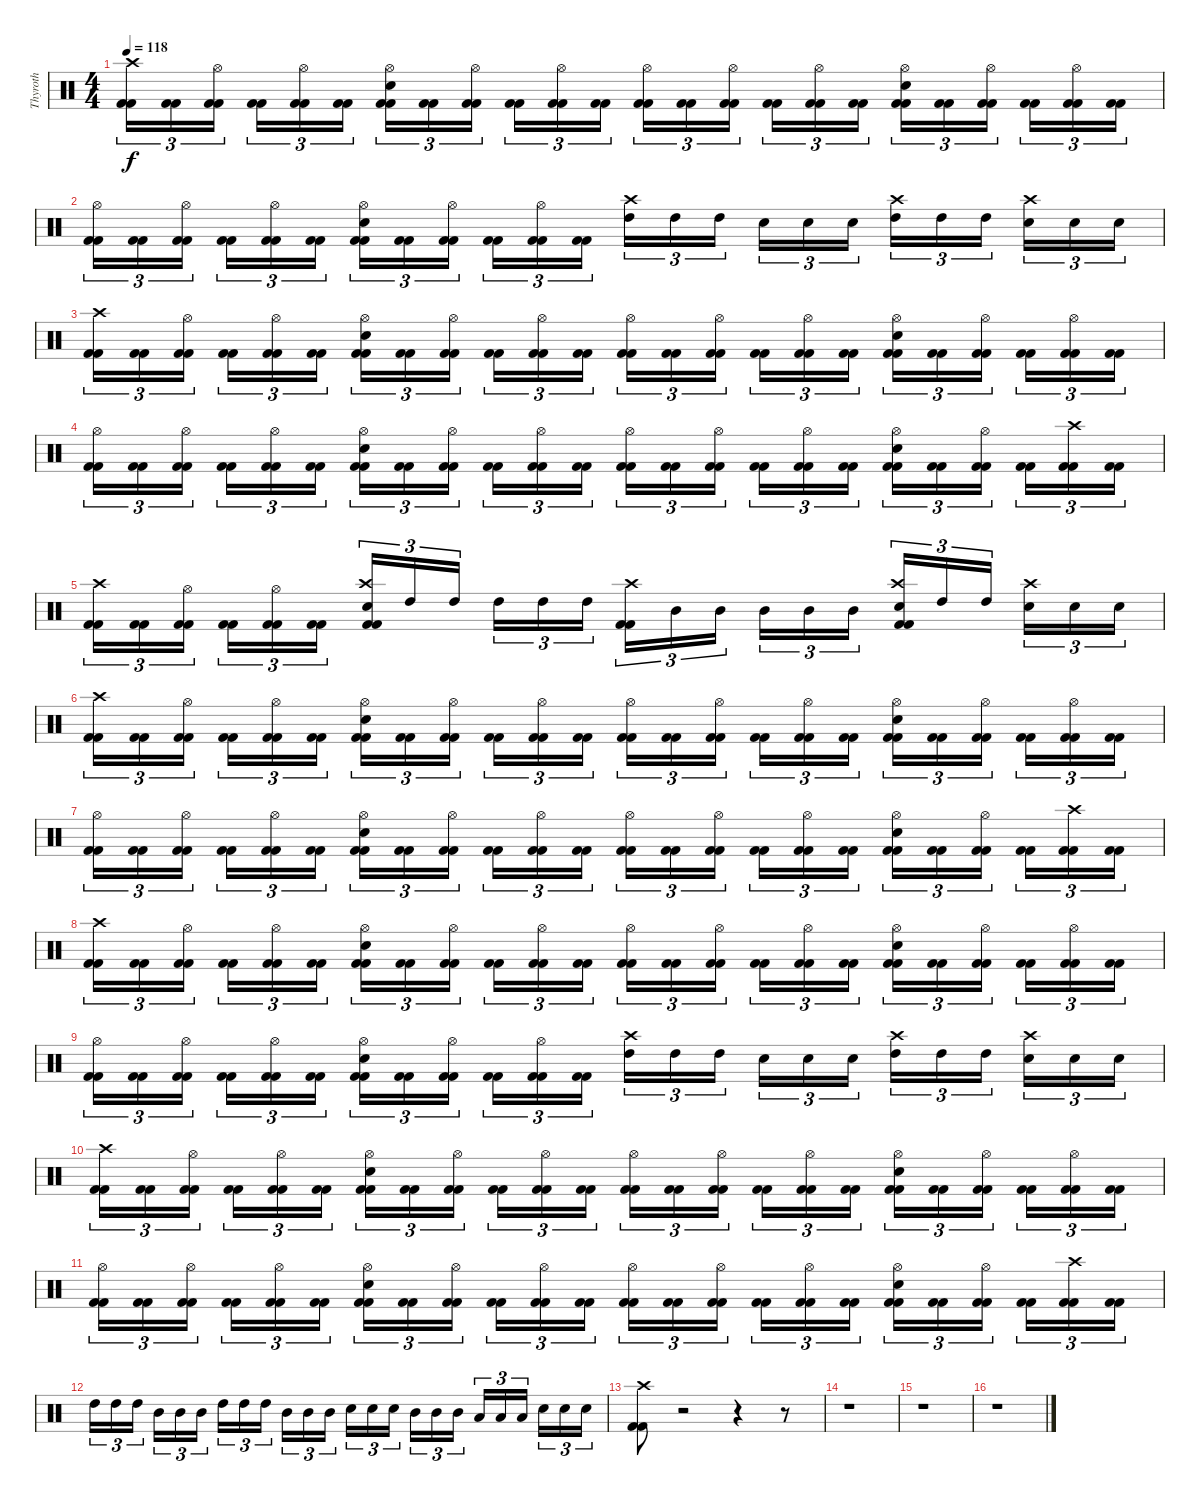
\track ("Thyroth" "Thyroth") {instrument percussion}
\staff {score}
\articulation defaults
\ts (4 4)
\tempo 118
\clef neutral
\ks c
("Kick (hit) 2" "Kick (hit) 2" "Crash high (hit)").16{tu (3 2) dy f} ("Kick (hit) 2" "Kick (hit) 2").16{tu (3 2)} ("Kick (hit) 2" "Kick (hit) 2" "Hi-Hat (open)").16{tu (3 2)} ("Kick (hit) 2" "Kick (hit) 2").16{tu (3 2)} ("Kick (hit) 2" "Kick (hit) 2" "Hi-Hat (open)").16{tu (3 2)} ("Kick (hit) 2" "Kick (hit) 2").16{tu (3 2)} ("Kick (hit) 2" "Kick (hit) 2" "Snare (hit) 2" "Hi-Hat (open)").16{tu (3 2)} ("Kick (hit) 2" "Kick (hit) 2").16{tu (3 2)} ("Kick (hit) 2" "Kick (hit) 2" "Hi-Hat (open)").16{tu (3 2)} ("Kick (hit) 2" "Kick (hit) 2").16{tu (3 2)} ("Kick (hit) 2" "Kick (hit) 2" "Hi-Hat (open)").16{tu (3 2)} ("Kick (hit) 2" "Kick (hit) 2").16{tu (3 2)} ("Kick (hit) 2" "Kick (hit) 2" "Hi-Hat (open)").16{tu (3 2)} ("Kick (hit) 2" "Kick (hit) 2").16{tu (3 2)} ("Kick (hit) 2" "Kick (hit) 2" "Hi-Hat (open)").16{tu (3 2)} ("Kick (hit) 2" "Kick (hit) 2").16{tu (3 2)} ("Kick (hit) 2" "Kick (hit) 2" "Hi-Hat (open)").16{tu (3 2)} ("Kick (hit) 2" "Kick (hit) 2").16{tu (3 2)} ("Kick (hit) 2" "Kick (hit) 2" "Snare (hit) 2" "Hi-Hat (open)").16{tu (3 2)} ("Kick (hit) 2" "Kick (hit) 2").16{tu (3 2)} ("Kick (hit) 2" "Kick (hit) 2" "Hi-Hat (open)").16{tu (3 2)} ("Kick (hit) 2" "Kick (hit) 2").16{tu (3 2)} ("Kick (hit) 2" "Kick (hit) 2" "Hi-Hat (open)").16{tu (3 2)} ("Kick (hit) 2" "Kick (hit) 2").16{tu (3 2)} |
("Kick (hit) 2" "Kick (hit) 2" "Hi-Hat (open)").16{tu (3 2)} ("Kick (hit) 2" "Kick (hit) 2").16{tu (3 2)} ("Kick (hit) 2" "Kick (hit) 2" "Hi-Hat (open)").16{tu (3 2)} ("Kick (hit) 2" "Kick (hit) 2").16{tu (3 2)} ("Kick (hit) 2" "Kick (hit) 2" "Hi-Hat (open)").16{tu (3 2)} ("Kick (hit) 2" "Kick (hit) 2").16{tu (3 2)} ("Kick (hit) 2" "Kick (hit) 2" "Snare (hit) 2" "Hi-Hat (open)").16{tu (3 2)} ("Kick (hit) 2" "Kick (hit) 2").16{tu (3 2)} ("Kick (hit) 2" "Kick (hit) 2" "Hi-Hat (open)").16{tu (3 2)} ("Kick (hit) 2" "Kick (hit) 2").16{tu (3 2)} ("Kick (hit) 2" "Kick (hit) 2" "Hi-Hat (open)").16{tu (3 2)} ("Kick (hit) 2" "Kick (hit) 2").16{tu (3 2)} ("High Tom (hit)" "Crash high (hit)").16{tu (3 2)} "High Tom (hit)".16{tu (3 2)} "High Tom (hit)".16{tu (3 2)} "Snare (hit) 2".16{tu (3 2)} "Snare (hit) 2".16{tu (3 2)} "Snare (hit) 2".16{tu (3 2)} ("High Tom (hit)" "Crash high (hit)").16{tu (3 2)} "High Tom (hit)".16{tu (3 2)} "High Tom (hit)".16{tu (3 2)} ("Snare (hit) 2" "Crash high (hit)").16{tu (3 2)} "Snare (hit) 2".16{tu (3 2)} "Snare (hit) 2".16{tu (3 2)} |
("Kick (hit) 2" "Kick (hit) 2" "Crash high (hit)").16{tu (3 2)} ("Kick (hit) 2" "Kick (hit) 2").16{tu (3 2)} ("Kick (hit) 2" "Kick (hit) 2" "Hi-Hat (open)").16{tu (3 2)} ("Kick (hit) 2" "Kick (hit) 2").16{tu (3 2)} ("Kick (hit) 2" "Kick (hit) 2" "Hi-Hat (open)").16{tu (3 2)} ("Kick (hit) 2" "Kick (hit) 2").16{tu (3 2)} ("Kick (hit) 2" "Kick (hit) 2" "Snare (hit) 2" "Hi-Hat (open)").16{tu (3 2)} ("Kick (hit) 2" "Kick (hit) 2").16{tu (3 2)} ("Kick (hit) 2" "Kick (hit) 2" "Hi-Hat (open)").16{tu (3 2)} ("Kick (hit) 2" "Kick (hit) 2").16{tu (3 2)} ("Kick (hit) 2" "Kick (hit) 2" "Hi-Hat (open)").16{tu (3 2)} ("Kick (hit) 2" "Kick (hit) 2").16{tu (3 2)} ("Kick (hit) 2" "Kick (hit) 2" "Hi-Hat (open)").16{tu (3 2)} ("Kick (hit) 2" "Kick (hit) 2").16{tu (3 2)} ("Kick (hit) 2" "Kick (hit) 2" "Hi-Hat (open)").16{tu (3 2)} ("Kick (hit) 2" "Kick (hit) 2").16{tu (3 2)} ("Kick (hit) 2" "Kick (hit) 2" "Hi-Hat (open)").16{tu (3 2)} ("Kick (hit) 2" "Kick (hit) 2").16{tu (3 2)} ("Kick (hit) 2" "Kick (hit) 2" "Snare (hit) 2" "Hi-Hat (open)").16{tu (3 2)} ("Kick (hit) 2" "Kick (hit) 2").16{tu (3 2)} ("Kick (hit) 2" "Kick (hit) 2" "Hi-Hat (open)").16{tu (3 2)} ("Kick (hit) 2" "Kick (hit) 2").16{tu (3 2)} ("Kick (hit) 2" "Kick (hit) 2" "Hi-Hat (open)").16{tu (3 2)} ("Kick (hit) 2" "Kick (hit) 2").16{tu (3 2)} |
("Kick (hit) 2" "Kick (hit) 2" "Hi-Hat (open)").16{tu (3 2)} ("Kick (hit) 2" "Kick (hit) 2").16{tu (3 2)} ("Kick (hit) 2" "Kick (hit) 2" "Hi-Hat (open)").16{tu (3 2)} ("Kick (hit) 2" "Kick (hit) 2").16{tu (3 2)} ("Kick (hit) 2" "Kick (hit) 2" "Hi-Hat (open)").16{tu (3 2)} ("Kick (hit) 2" "Kick (hit) 2").16{tu (3 2)} ("Kick (hit) 2" "Kick (hit) 2" "Snare (hit) 2" "Hi-Hat (open)").16{tu (3 2)} ("Kick (hit) 2" "Kick (hit) 2").16{tu (3 2)} ("Kick (hit) 2" "Kick (hit) 2" "Hi-Hat (open)").16{tu (3 2)} ("Kick (hit) 2" "Kick (hit) 2").16{tu (3 2)} ("Kick (hit) 2" "Kick (hit) 2" "Hi-Hat (open)").16{tu (3 2)} ("Kick (hit) 2" "Kick (hit) 2").16{tu (3 2)} ("Kick (hit) 2" "Kick (hit) 2" "Hi-Hat (open)").16{tu (3 2)} ("Kick (hit) 2" "Kick (hit) 2").16{tu (3 2)} ("Kick (hit) 2" "Kick (hit) 2" "Hi-Hat (open)").16{tu (3 2)} ("Kick (hit) 2" "Kick (hit) 2").16{tu (3 2)} ("Kick (hit) 2" "Kick (hit) 2" "Hi-Hat (open)").16{tu (3 2)} ("Kick (hit) 2" "Kick (hit) 2").16{tu (3 2)} ("Kick (hit) 2" "Kick (hit) 2" "Snare (hit) 2" "Hi-Hat (open)").16{tu (3 2)} ("Kick (hit) 2" "Kick (hit) 2").16{tu (3 2)} ("Kick (hit) 2" "Kick (hit) 2" "Hi-Hat (open)").16{tu (3 2)} ("Kick (hit) 2" "Kick (hit) 2").16{tu (3 2)} ("Kick (hit) 2" "Kick (hit) 2" "Crash high (hit)").16{tu (3 2)} ("Kick (hit) 2" "Kick (hit) 2").16{tu (3 2)} |
("Kick (hit) 2" "Kick (hit) 2" "Crash high (hit)").16{tu (3 2)} ("Kick (hit) 2" "Kick (hit) 2").16{tu (3 2)} ("Kick (hit) 2" "Kick (hit) 2" "Hi-Hat (open)").16{tu (3 2)} ("Kick (hit) 2" "Kick (hit) 2").16{tu (3 2)} ("Kick (hit) 2" "Kick (hit) 2" "Hi-Hat (open)").16{tu (3 2)} ("Kick (hit) 2" "Kick (hit) 2").16{tu (3 2)} ("Kick (hit) 2" "Kick (hit) 2" "Snare (hit) 2" "Crash high (hit)").16{tu (3 2)} "High Tom (hit)".16{tu (3 2)} "High Tom (hit)".16{tu (3 2)} "High Tom (hit)".16{tu (3 2)} "High Tom (hit)".16{tu (3 2)} "High Tom (hit)".16{tu (3 2)} ("Kick (hit) 2" "Kick (hit) 2" "Crash high (hit)").16{tu (3 2)} "Mid Tom (hit)".16{tu (3 2)} "Mid Tom (hit)".16{tu (3 2)} "Mid Tom (hit)".16{tu (3 2)} "Mid Tom (hit)".16{tu (3 2)} "Mid Tom (hit)".16{tu (3 2)} ("Kick (hit) 2" "Kick (hit) 2" "Snare (hit) 2" "Crash high (hit)").16{tu (3 2)} "High Tom (hit)".16{tu (3 2)} "High Tom (hit)".16{tu (3 2)} ("Snare (hit) 2" "Crash high (hit)").16{tu (3 2)} "Snare (hit) 2".16{tu (3 2)} "Snare (hit) 2".16{tu (3 2)} |
("Kick (hit) 2" "Kick (hit) 2" "Crash high (hit)").16{tu (3 2)} ("Kick (hit) 2" "Kick (hit) 2").16{tu (3 2)} ("Kick (hit) 2" "Kick (hit) 2" "Hi-Hat (open)").16{tu (3 2)} ("Kick (hit) 2" "Kick (hit) 2").16{tu (3 2)} ("Kick (hit) 2" "Kick (hit) 2" "Hi-Hat (open)").16{tu (3 2)} ("Kick (hit) 2" "Kick (hit) 2").16{tu (3 2)} ("Kick (hit) 2" "Kick (hit) 2" "Snare (hit) 2" "Hi-Hat (open)").16{tu (3 2)} ("Kick (hit) 2" "Kick (hit) 2").16{tu (3 2)} ("Kick (hit) 2" "Kick (hit) 2" "Hi-Hat (open)").16{tu (3 2)} ("Kick (hit) 2" "Kick (hit) 2").16{tu (3 2)} ("Kick (hit) 2" "Kick (hit) 2" "Hi-Hat (open)").16{tu (3 2)} ("Kick (hit) 2" "Kick (hit) 2").16{tu (3 2)} ("Kick (hit) 2" "Kick (hit) 2" "Hi-Hat (open)").16{tu (3 2)} ("Kick (hit) 2" "Kick (hit) 2").16{tu (3 2)} ("Kick (hit) 2" "Kick (hit) 2" "Hi-Hat (open)").16{tu (3 2)} ("Kick (hit) 2" "Kick (hit) 2").16{tu (3 2)} ("Kick (hit) 2" "Kick (hit) 2" "Hi-Hat (open)").16{tu (3 2)} ("Kick (hit) 2" "Kick (hit) 2").16{tu (3 2)} ("Kick (hit) 2" "Kick (hit) 2" "Snare (hit) 2" "Hi-Hat (open)").16{tu (3 2)} ("Kick (hit) 2" "Kick (hit) 2").16{tu (3 2)} ("Kick (hit) 2" "Kick (hit) 2" "Hi-Hat (open)").16{tu (3 2)} ("Kick (hit) 2" "Kick (hit) 2").16{tu (3 2)} ("Kick (hit) 2" "Kick (hit) 2" "Hi-Hat (open)").16{tu (3 2)} ("Kick (hit) 2" "Kick (hit) 2").16{tu (3 2)} |
("Kick (hit) 2" "Kick (hit) 2" "Hi-Hat (open)").16{tu (3 2)} ("Kick (hit) 2" "Kick (hit) 2").16{tu (3 2)} ("Kick (hit) 2" "Kick (hit) 2" "Hi-Hat (open)").16{tu (3 2)} ("Kick (hit) 2" "Kick (hit) 2").16{tu (3 2)} ("Kick (hit) 2" "Kick (hit) 2" "Hi-Hat (open)").16{tu (3 2)} ("Kick (hit) 2" "Kick (hit) 2").16{tu (3 2)} ("Kick (hit) 2" "Kick (hit) 2" "Snare (hit) 2" "Hi-Hat (open)").16{tu (3 2)} ("Kick (hit) 2" "Kick (hit) 2").16{tu (3 2)} ("Kick (hit) 2" "Kick (hit) 2" "Hi-Hat (open)").16{tu (3 2)} ("Kick (hit) 2" "Kick (hit) 2").16{tu (3 2)} ("Kick (hit) 2" "Kick (hit) 2" "Hi-Hat (open)").16{tu (3 2)} ("Kick (hit) 2" "Kick (hit) 2").16{tu (3 2)} ("Kick (hit) 2" "Kick (hit) 2" "Hi-Hat (open)").16{tu (3 2)} ("Kick (hit) 2" "Kick (hit) 2").16{tu (3 2)} ("Kick (hit) 2" "Kick (hit) 2" "Hi-Hat (open)").16{tu (3 2)} ("Kick (hit) 2" "Kick (hit) 2").16{tu (3 2)} ("Kick (hit) 2" "Kick (hit) 2" "Hi-Hat (open)").16{tu (3 2)} ("Kick (hit) 2" "Kick (hit) 2").16{tu (3 2)} ("Kick (hit) 2" "Kick (hit) 2" "Snare (hit) 2" "Hi-Hat (open)").16{tu (3 2)} ("Kick (hit) 2" "Kick (hit) 2").16{tu (3 2)} ("Kick (hit) 2" "Kick (hit) 2" "Hi-Hat (open)").16{tu (3 2)} ("Kick (hit) 2" "Kick (hit) 2").16{tu (3 2)} ("Kick (hit) 2" "Kick (hit) 2" "Crash high (hit)").16{tu (3 2)} ("Kick (hit) 2" "Kick (hit) 2").16{tu (3 2)} |
("Kick (hit) 2" "Kick (hit) 2" "Crash high (hit)").16{tu (3 2)} ("Kick (hit) 2" "Kick (hit) 2").16{tu (3 2)} ("Kick (hit) 2" "Kick (hit) 2" "Hi-Hat (open)").16{tu (3 2)} ("Kick (hit) 2" "Kick (hit) 2").16{tu (3 2)} ("Kick (hit) 2" "Kick (hit) 2" "Hi-Hat (open)").16{tu (3 2)} ("Kick (hit) 2" "Kick (hit) 2").16{tu (3 2)} ("Kick (hit) 2" "Kick (hit) 2" "Snare (hit) 2" "Hi-Hat (open)").16{tu (3 2)} ("Kick (hit) 2" "Kick (hit) 2").16{tu (3 2)} ("Kick (hit) 2" "Kick (hit) 2" "Hi-Hat (open)").16{tu (3 2)} ("Kick (hit) 2" "Kick (hit) 2").16{tu (3 2)} ("Kick (hit) 2" "Kick (hit) 2" "Hi-Hat (open)").16{tu (3 2)} ("Kick (hit) 2" "Kick (hit) 2").16{tu (3 2)} ("Kick (hit) 2" "Kick (hit) 2" "Hi-Hat (open)").16{tu (3 2)} ("Kick (hit) 2" "Kick (hit) 2").16{tu (3 2)} ("Kick (hit) 2" "Kick (hit) 2" "Hi-Hat (open)").16{tu (3 2)} ("Kick (hit) 2" "Kick (hit) 2").16{tu (3 2)} ("Kick (hit) 2" "Kick (hit) 2" "Hi-Hat (open)").16{tu (3 2)} ("Kick (hit) 2" "Kick (hit) 2").16{tu (3 2)} ("Kick (hit) 2" "Kick (hit) 2" "Snare (hit) 2" "Hi-Hat (open)").16{tu (3 2)} ("Kick (hit) 2" "Kick (hit) 2").16{tu (3 2)} ("Kick (hit) 2" "Kick (hit) 2" "Hi-Hat (open)").16{tu (3 2)} ("Kick (hit) 2" "Kick (hit) 2").16{tu (3 2)} ("Kick (hit) 2" "Kick (hit) 2" "Hi-Hat (open)").16{tu (3 2)} ("Kick (hit) 2" "Kick (hit) 2").16{tu (3 2)} |
("Kick (hit) 2" "Kick (hit) 2" "Hi-Hat (open)").16{tu (3 2)} ("Kick (hit) 2" "Kick (hit) 2").16{tu (3 2)} ("Kick (hit) 2" "Kick (hit) 2" "Hi-Hat (open)").16{tu (3 2)} ("Kick (hit) 2" "Kick (hit) 2").16{tu (3 2)} ("Kick (hit) 2" "Kick (hit) 2" "Hi-Hat (open)").16{tu (3 2)} ("Kick (hit) 2" "Kick (hit) 2").16{tu (3 2)} ("Kick (hit) 2" "Kick (hit) 2" "Snare (hit) 2" "Hi-Hat (open)").16{tu (3 2)} ("Kick (hit) 2" "Kick (hit) 2").16{tu (3 2)} ("Kick (hit) 2" "Kick (hit) 2" "Hi-Hat (open)").16{tu (3 2)} ("Kick (hit) 2" "Kick (hit) 2").16{tu (3 2)} ("Kick (hit) 2" "Kick (hit) 2" "Hi-Hat (open)").16{tu (3 2)} ("Kick (hit) 2" "Kick (hit) 2").16{tu (3 2)} ("High Tom (hit)" "Crash high (hit)").16{tu (3 2)} "High Tom (hit)".16{tu (3 2)} "High Tom (hit)".16{tu (3 2)} "Snare (hit) 2".16{tu (3 2)} "Snare (hit) 2".16{tu (3 2)} "Snare (hit) 2".16{tu (3 2)} ("High Tom (hit)" "Crash high (hit)").16{tu (3 2)} "High Tom (hit)".16{tu (3 2)} "High Tom (hit)".16{tu (3 2)} ("Snare (hit) 2" "Crash high (hit)").16{tu (3 2)} "Snare (hit) 2".16{tu (3 2)} "Snare (hit) 2".16{tu (3 2)} |
("Kick (hit) 2" "Kick (hit) 2" "Crash high (hit)").16{tu (3 2)} ("Kick (hit) 2" "Kick (hit) 2").16{tu (3 2)} ("Kick (hit) 2" "Kick (hit) 2" "Hi-Hat (open)").16{tu (3 2)} ("Kick (hit) 2" "Kick (hit) 2").16{tu (3 2)} ("Kick (hit) 2" "Kick (hit) 2" "Hi-Hat (open)").16{tu (3 2)} ("Kick (hit) 2" "Kick (hit) 2").16{tu (3 2)} ("Kick (hit) 2" "Kick (hit) 2" "Snare (hit) 2" "Hi-Hat (open)").16{tu (3 2)} ("Kick (hit) 2" "Kick (hit) 2").16{tu (3 2)} ("Kick (hit) 2" "Kick (hit) 2" "Hi-Hat (open)").16{tu (3 2)} ("Kick (hit) 2" "Kick (hit) 2").16{tu (3 2)} ("Kick (hit) 2" "Kick (hit) 2" "Hi-Hat (open)").16{tu (3 2)} ("Kick (hit) 2" "Kick (hit) 2").16{tu (3 2)} ("Kick (hit) 2" "Kick (hit) 2" "Hi-Hat (open)").16{tu (3 2)} ("Kick (hit) 2" "Kick (hit) 2").16{tu (3 2)} ("Kick (hit) 2" "Kick (hit) 2" "Hi-Hat (open)").16{tu (3 2)} ("Kick (hit) 2" "Kick (hit) 2").16{tu (3 2)} ("Kick (hit) 2" "Kick (hit) 2" "Hi-Hat (open)").16{tu (3 2)} ("Kick (hit) 2" "Kick (hit) 2").16{tu (3 2)} ("Kick (hit) 2" "Kick (hit) 2" "Snare (hit) 2" "Hi-Hat (open)").16{tu (3 2)} ("Kick (hit) 2" "Kick (hit) 2").16{tu (3 2)} ("Kick (hit) 2" "Kick (hit) 2" "Hi-Hat (open)").16{tu (3 2)} ("Kick (hit) 2" "Kick (hit) 2").16{tu (3 2)} ("Kick (hit) 2" "Kick (hit) 2" "Hi-Hat (open)").16{tu (3 2)} ("Kick (hit) 2" "Kick (hit) 2").16{tu (3 2)} |
("Kick (hit) 2" "Kick (hit) 2" "Hi-Hat (open)").16{tu (3 2)} ("Kick (hit) 2" "Kick (hit) 2").16{tu (3 2)} ("Kick (hit) 2" "Kick (hit) 2" "Hi-Hat (open)").16{tu (3 2)} ("Kick (hit) 2" "Kick (hit) 2").16{tu (3 2)} ("Kick (hit) 2" "Kick (hit) 2" "Hi-Hat (open)").16{tu (3 2)} ("Kick (hit) 2" "Kick (hit) 2").16{tu (3 2)} ("Kick (hit) 2" "Kick (hit) 2" "Snare (hit) 2" "Hi-Hat (open)").16{tu (3 2)} ("Kick (hit) 2" "Kick (hit) 2").16{tu (3 2)} ("Kick (hit) 2" "Kick (hit) 2" "Hi-Hat (open)").16{tu (3 2)} ("Kick (hit) 2" "Kick (hit) 2").16{tu (3 2)} ("Kick (hit) 2" "Kick (hit) 2" "Hi-Hat (open)").16{tu (3 2)} ("Kick (hit) 2" "Kick (hit) 2").16{tu (3 2)} ("Kick (hit) 2" "Kick (hit) 2" "Hi-Hat (open)").16{tu (3 2)} ("Kick (hit) 2" "Kick (hit) 2").16{tu (3 2)} ("Kick (hit) 2" "Kick (hit) 2" "Hi-Hat (open)").16{tu (3 2)} ("Kick (hit) 2" "Kick (hit) 2").16{tu (3 2)} ("Kick (hit) 2" "Kick (hit) 2" "Hi-Hat (open)").16{tu (3 2)} ("Kick (hit) 2" "Kick (hit) 2").16{tu (3 2)} ("Kick (hit) 2" "Kick (hit) 2" "Snare (hit) 2" "Hi-Hat (open)").16{tu (3 2)} ("Kick (hit) 2" "Kick (hit) 2").16{tu (3 2)} ("Kick (hit) 2" "Kick (hit) 2" "Hi-Hat (open)").16{tu (3 2)} ("Kick (hit) 2" "Kick (hit) 2").16{tu (3 2)} ("Kick (hit) 2" "Kick (hit) 2" "Crash high (hit)").16{tu (3 2)} ("Kick (hit) 2" "Kick (hit) 2").16{tu (3 2)} |
"High Tom (hit)".16{tu (3 2)} "High Tom (hit)".16{tu (3 2)} "High Tom (hit)".16{tu (3 2)} "Mid Tom (hit)".16{tu (3 2)} "Mid Tom (hit)".16{tu (3 2)} "Mid Tom (hit)".16{tu (3 2)} "High Tom (hit)".16{tu (3 2)} "High Tom (hit)".16{tu (3 2)} "High Tom (hit)".16{tu (3 2)} "Mid Tom (hit)".16{tu (3 2)} "Mid Tom (hit)".16{tu (3 2)} "Mid Tom (hit)".16{tu (3 2)} "Snare (hit) 2".16{tu (3 2)} "Snare (hit) 2".16{tu (3 2)} "Snare (hit) 2".16{tu (3 2)} "Mid Tom (hit)".16{tu (3 2)} "Mid Tom (hit)".16{tu (3 2)} "Mid Tom (hit)".16{tu (3 2)} "Low Tom (hit)".16{tu (3 2)} "Low Tom (hit)".16{tu (3 2)} "Low Tom (hit)".16{tu (3 2)} "Snare (hit) 2".16{tu (3 2)} "Snare (hit) 2".16{tu (3 2)} "Snare (hit) 2".16{tu (3 2)} |
("Kick (hit) 2" "Kick (hit) 2" "Crash high (hit)").8 r.2 r.4 r.8 |
r.1 |
r.1 |
r.1
